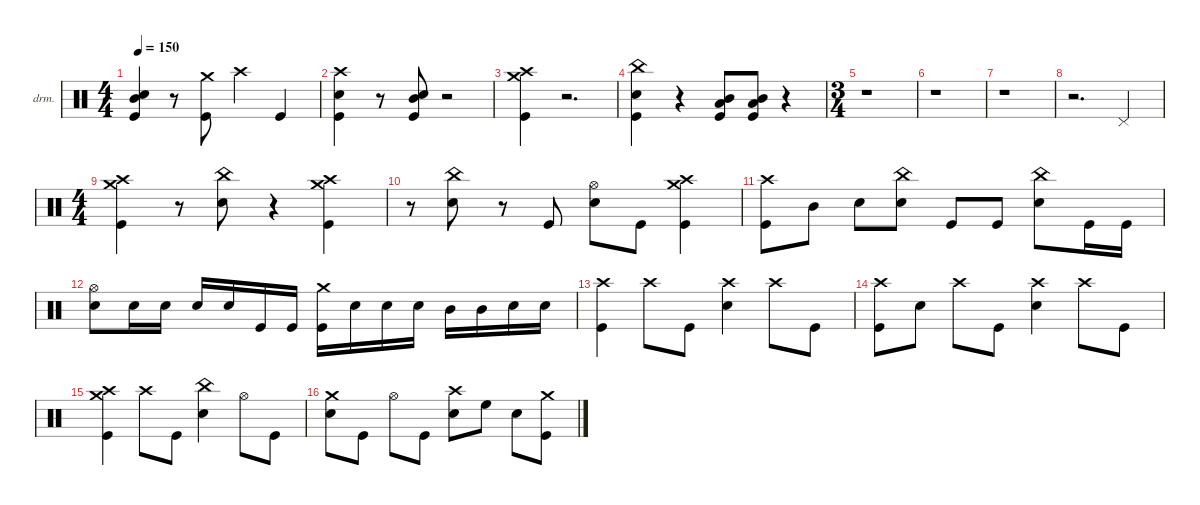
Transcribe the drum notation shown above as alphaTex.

\defaultSystemsLayout 4
\hideDynamics
\bracketExtendMode nobrackets
\firstSystemTrackNameOrientation horizontal
\track ("Drumkit" "drm.") {instrument percussion}
\staff {score}
\articulation defaults
\ts (4 4)
\tempo 150
\clef neutral
\ks c
("Kick (hit)" "Snare (hit) 2" "Mid Tom (hit)").4{dy fff} r.8 ("Kick (hit)" "Crash medium (hit)").8 "Crash high (hit)"{acc #}.4{dy ff} "Kick (hit)".4{dy fff} |
("Kick (hit)" "Snare (hit) 2" "Crash high (hit)"{acc #}).4 r.8 ("Snare (hit) 2" "Kick (hit)" "Mid Tom (hit)").8 r.2 |
("Kick (hit)" "Crash high (hit)"{acc #} "Crash medium (hit)").4{dy ff} r.2{d} |
("Kick (hit)" "Snare (hit) 2" "China (hit)").4 r.4 ("Kick (hit)" "Low Tom (hit)" "Mid Tom (hit)").8 ("Kick (hit)" "Low Tom (hit)" "Mid Tom (hit)").8 r.4 |
\ts (3 4)
\beaming (8 2 2 2)
r.1 |
r.1 |
r.1 |
r.2{d} "Pedal Hi-Hat (hit)"{acc #}.4{dy p} |
\ts (4 4)
\beaming (8 2 2 2 2)
("Kick (hit)" "Crash high (hit)"{acc #} "Crash medium (hit)").4{dy ff} r.8 ("Snare (hit) 2" "China (hit)").8 r.4 ("Kick (hit)" "Crash high (hit)"{acc #} "Crash medium (hit)").4 |
r.8 ("Snare (hit) 2" "China (hit)").8{dy fff} r.8 "Kick (hit)".8 ("Snare (hit) 2" "Hi-Hat (open)"{acc #}).8 "Kick (hit)".8 ("Kick (hit)" "Crash high (hit)"{acc #} "Crash medium (hit)").4 |
("Kick (hit)" "Crash high (hit)"{acc #}).8 "Mid Tom (hit)".8{dy ff} "Snare (hit) 2".8 ("Snare (hit) 2" "China (hit)").8 "Kick (hit)".8{dy fff} "Kick (hit)".8 ("Snare (hit) 2" "China (hit)").8 "Kick (hit)".16 "Kick (hit)".16 |
("Snare (hit) 2" "Hi-Hat (open)"{acc #}).8 "Snare (hit) 2".16{dy p} "Snare (hit) 2".16 "Snare (hit) 2".16{dy fff} "Snare (hit) 2".16 "Kick (hit)".16 "Kick (hit)".16 ("Kick (hit)" "Crash medium (hit)").16 "Snare (hit) 2".16{dy mp} "Snare (hit) 2".16{dy f} "Snare (hit) 2".16{dy fff} "Mid Tom (hit)".16{dy ff} "Mid Tom (hit)".16 "Snare (hit) 2".16{dy f} "Snare (hit) 2".16{dy ff} |
("Kick (hit)" "Crash high (hit)"{acc #}).4 "Crash high (hit)"{acc #}.8 "Kick (hit)".8{dy fff} ("Snare (hit) 2" "Crash high (hit)"{acc #}).4 "Crash high (hit)"{acc #}.8{dy ff} "Kick (hit)".8{dy fff} |
("Kick (hit)" "Crash high (hit)"{acc #}).8{dy ff} "Snare (hit) 2".8{dy p} "Crash high (hit)"{acc #}.8{dy ff} "Kick (hit)".8{dy fff} ("Snare (hit) 2" "Crash high (hit)"{acc #}).4 "Crash high (hit)"{acc #}.8{dy ff} "Kick (hit)".8{dy fff} |
("Kick (hit)" "Crash high (hit)"{acc #} "Crash medium (hit)").4 "Crash high (hit)"{acc #}.8{dy ff} "Kick (hit)".8{dy fff} ("Snare (hit) 2" "China (hit)").4 "Hi-Hat (open)"{acc #}.8{dy ff} "Kick (hit)".8{dy fff} |
("Snare (hit) 2" "Crash medium (hit)").8{dy ff} "Kick (hit)".8{dy fff} "Hi-Hat (open)"{acc #}.8{dy ff} "Kick (hit)".8{dy fff} ("Snare (hit) 2" "Crash high (hit)"{acc #}).8 "High Floor Tom (hit)".8{dy ff} "Snare (hit) 2".8 ("Kick (hit)" "Crash medium (hit)").8
